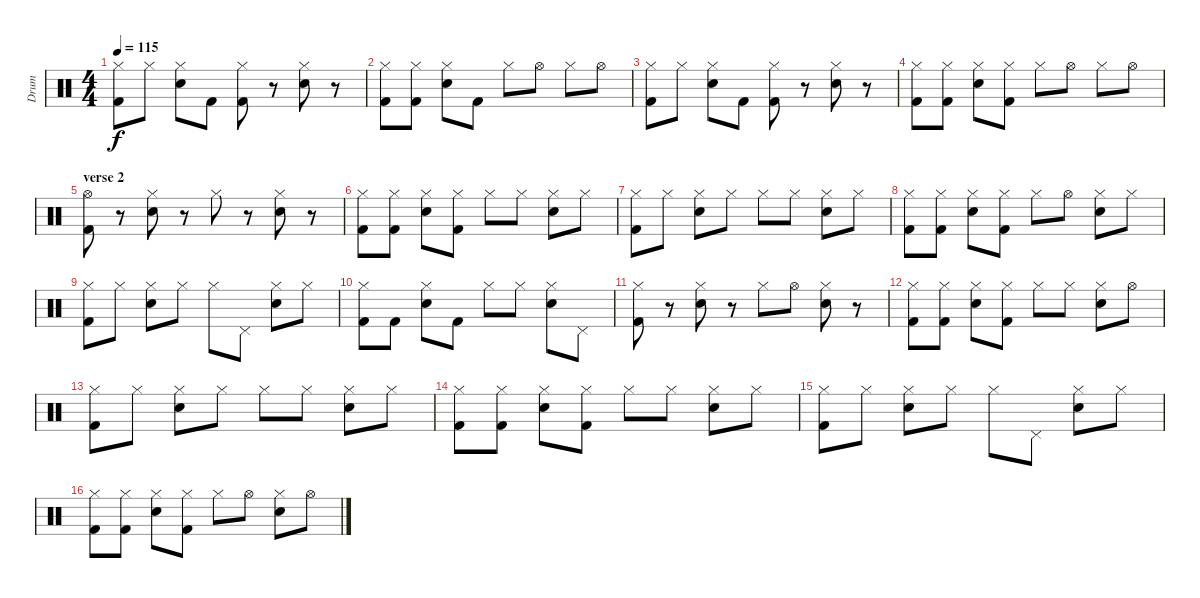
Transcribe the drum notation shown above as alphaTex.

\track ("Drum" "Drum") {instrument percussion}
\staff {score}
\articulation defaults
\ts (4 4)
\tempo 115
\clef neutral
\ks c
("Hi-Hat (closed)" "Kick (hit) 2").8{dy f} "Hi-Hat (closed)".8 ("Hi-Hat (closed)" "Electric Snare (hit)").8 "Kick (hit) 2".8 ("Hi-Hat (closed)" "Kick (hit) 2").8 r.8 ("Hi-Hat (closed)" "Electric Snare (hit)").8 r.8 |
("Hi-Hat (closed)" "Kick (hit) 2").8 ("Hi-Hat (closed)" "Kick (hit) 2").8 ("Hi-Hat (closed)" "Electric Snare (hit)").8 "Kick (hit) 2".8 "Hi-Hat (closed)".8 "Hi-Hat (open)".8 "Hi-Hat (closed)".8 "Hi-Hat (open)".8 |
("Hi-Hat (closed)" "Kick (hit) 2").8 "Hi-Hat (closed)".8 ("Hi-Hat (closed)" "Electric Snare (hit)").8 "Kick (hit) 2".8 ("Hi-Hat (closed)" "Kick (hit) 2").8 r.8 ("Hi-Hat (closed)" "Electric Snare (hit)").8 r.8 |
("Hi-Hat (closed)" "Kick (hit) 2").8 ("Hi-Hat (closed)" "Kick (hit) 2").8 ("Hi-Hat (closed)" "Electric Snare (hit)").8 ("Hi-Hat (closed)" "Kick (hit) 2").8 "Hi-Hat (closed)".8 "Hi-Hat (open)".8 "Hi-Hat (closed)".8 "Hi-Hat (open)".8 |
\section ("" "verse 2")
("Hi-Hat (open)" "Kick (hit) 2").8 r.8 ("Hi-Hat (closed)" "Electric Snare (hit)").8 r.8 "Hi-Hat (closed)".8 r.8 ("Hi-Hat (closed)" "Electric Snare (hit)").8 r.8 |
("Hi-Hat (closed)" "Kick (hit) 2").8 ("Hi-Hat (closed)" "Kick (hit) 2").8 ("Hi-Hat (closed)" "Electric Snare (hit)").8 ("Hi-Hat (closed)" "Kick (hit) 2").8 "Hi-Hat (closed)".8 "Hi-Hat (closed)".8 ("Hi-Hat (closed)" "Electric Snare (hit)").8 "Hi-Hat (closed)".8 |
("Hi-Hat (closed)" "Kick (hit) 2").8 "Hi-Hat (closed)".8 ("Hi-Hat (closed)" "Electric Snare (hit)").8 "Hi-Hat (closed)".8 "Hi-Hat (closed)".8 "Hi-Hat (closed)".8 ("Hi-Hat (closed)" "Electric Snare (hit)").8 "Hi-Hat (closed)".8 |
("Hi-Hat (closed)" "Kick (hit) 2").8 ("Hi-Hat (closed)" "Kick (hit) 2").8 ("Hi-Hat (closed)" "Electric Snare (hit)").8 ("Hi-Hat (closed)" "Kick (hit) 2").8 "Hi-Hat (closed)".8 "Hi-Hat (open)".8 ("Hi-Hat (closed)" "Electric Snare (hit)").8 "Hi-Hat (closed)".8 |
("Hi-Hat (closed)" "Kick (hit) 2").8 "Hi-Hat (closed)".8 ("Hi-Hat (closed)" "Electric Snare (hit)").8 "Hi-Hat (closed)".8 "Hi-Hat (closed)".8 "Pedal Hi-Hat (hit)".8 ("Hi-Hat (closed)" "Electric Snare (hit)").8 "Hi-Hat (closed)".8 |
("Hi-Hat (closed)" "Kick (hit) 2").8 "Kick (hit) 2".8 ("Hi-Hat (closed)" "Electric Snare (hit)").8 "Kick (hit) 2".8 "Hi-Hat (closed)".8 "Hi-Hat (closed)".8 ("Hi-Hat (closed)" "Electric Snare (hit)").8 "Pedal Hi-Hat (hit)".8 |
("Hi-Hat (closed)" "Kick (hit) 2").8 r.8 ("Hi-Hat (closed)" "Electric Snare (hit)").8 r.8 "Hi-Hat (closed)".8 "Hi-Hat (open)".8 ("Hi-Hat (closed)" "Electric Snare (hit)").8 r.8 |
("Hi-Hat (closed)" "Kick (hit) 2").8 ("Hi-Hat (closed)" "Kick (hit) 2").8 ("Hi-Hat (closed)" "Electric Snare (hit)").8 ("Hi-Hat (closed)" "Kick (hit) 2").8 "Hi-Hat (closed)".8 "Hi-Hat (closed)".8 ("Hi-Hat (closed)" "Electric Snare (hit)").8 "Hi-Hat (open)".8 |
("Hi-Hat (closed)" "Kick (hit) 2").8 "Hi-Hat (closed)".8 ("Hi-Hat (closed)" "Electric Snare (hit)").8 "Hi-Hat (closed)".8 "Hi-Hat (closed)".8 "Hi-Hat (closed)".8 ("Hi-Hat (closed)" "Electric Snare (hit)").8 "Hi-Hat (closed)".8 |
("Hi-Hat (closed)" "Kick (hit) 2").8 ("Hi-Hat (closed)" "Kick (hit) 2").8 ("Hi-Hat (closed)" "Electric Snare (hit)").8 ("Hi-Hat (closed)" "Kick (hit) 2").8 "Hi-Hat (closed)".8 "Hi-Hat (closed)".8 ("Hi-Hat (closed)" "Electric Snare (hit)").8 "Hi-Hat (closed)".8 |
("Hi-Hat (closed)" "Kick (hit) 2").8 "Hi-Hat (closed)".8 ("Hi-Hat (closed)" "Electric Snare (hit)").8 "Hi-Hat (closed)".8 "Hi-Hat (closed)".8 "Pedal Hi-Hat (hit)".8 ("Hi-Hat (closed)" "Electric Snare (hit)").8 "Hi-Hat (closed)".8 |
("Hi-Hat (closed)" "Kick (hit) 2").8 ("Hi-Hat (closed)" "Kick (hit) 2").8 ("Hi-Hat (closed)" "Electric Snare (hit)").8 ("Hi-Hat (closed)" "Kick (hit) 2").8 "Hi-Hat (closed)".8 "Hi-Hat (open)".8 ("Hi-Hat (closed)" "Electric Snare (hit)").8 "Hi-Hat (open)".8
